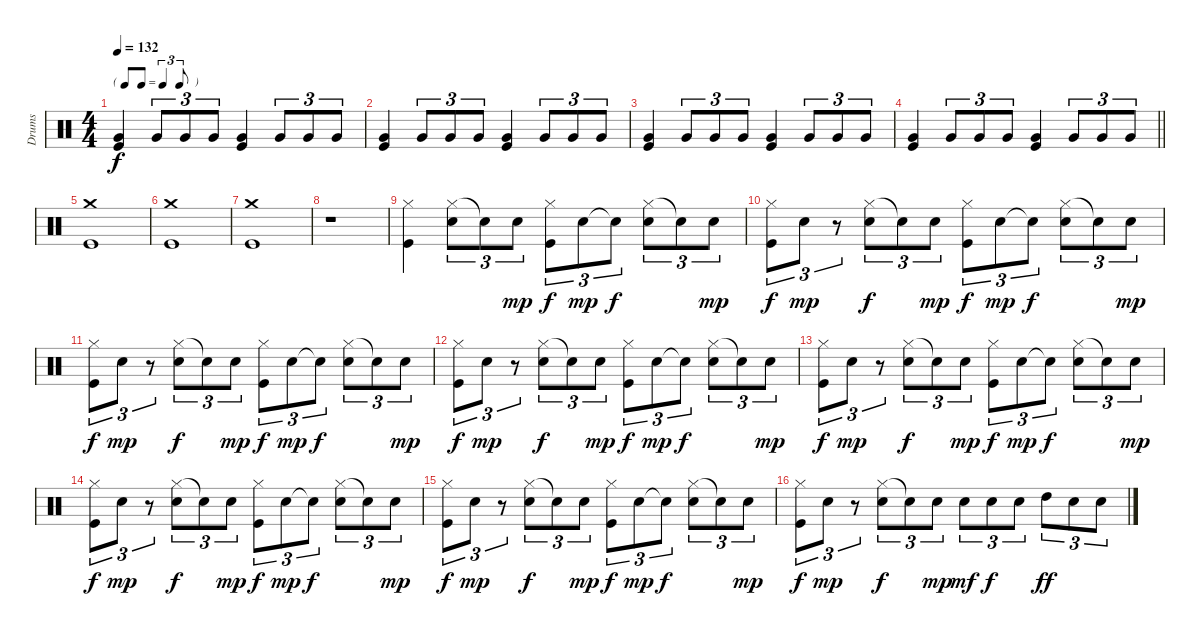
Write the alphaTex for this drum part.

\track ("Drums" "Drums") {instrument percussion}
\staff {score}
\articulation defaults
\ts (4 4)
\tf triplet8th
\tempo 132
\clef neutral
\ks c
("Very Low Tom (hit)" "Kick (hit)").4{dy f} "Very Low Tom (hit)".8{tu (3 2)} "Very Low Tom (hit)".8{tu (3 2)} "Very Low Tom (hit)".8{tu (3 2)} ("Very Low Tom (hit)" "Kick (hit)").4 "Very Low Tom (hit)".8{tu (3 2)} "Very Low Tom (hit)".8{tu (3 2)} "Very Low Tom (hit)".8{tu (3 2)} |
("Very Low Tom (hit)" "Kick (hit)").4 "Very Low Tom (hit)".8{tu (3 2)} "Very Low Tom (hit)".8{tu (3 2)} "Very Low Tom (hit)".8{tu (3 2)} ("Very Low Tom (hit)" "Kick (hit)").4 "Very Low Tom (hit)".8{tu (3 2)} "Very Low Tom (hit)".8{tu (3 2)} "Very Low Tom (hit)".8{tu (3 2)} |
("Very Low Tom (hit)" "Kick (hit)").4 "Very Low Tom (hit)".8{tu (3 2)} "Very Low Tom (hit)".8{tu (3 2)} "Very Low Tom (hit)".8{tu (3 2)} ("Very Low Tom (hit)" "Kick (hit)").4 "Very Low Tom (hit)".8{tu (3 2)} "Very Low Tom (hit)".8{tu (3 2)} "Very Low Tom (hit)".8{tu (3 2)} |
\barLineRight lightlight
("Very Low Tom (hit)" "Kick (hit)").4 "Very Low Tom (hit)".8{tu (3 2)} "Very Low Tom (hit)".8{tu (3 2)} "Very Low Tom (hit)".8{tu (3 2)} ("Very Low Tom (hit)" "Kick (hit)").4 "Very Low Tom (hit)".8{tu (3 2)} "Very Low Tom (hit)".8{tu (3 2)} "Very Low Tom (hit)".8{tu (3 2)} |
("Crash medium (hit)" "Kick (hit)").1 |
("Crash medium (hit)" "Kick (hit)").1 |
("Crash medium (hit)" "Kick (hit)").1 |
r.1 |
("Hi-Hat (closed)" "Kick (hit)").4 ("Hi-Hat (closed)" "Electric Snare (hit)").8{tu (3 2)} "Snare (hit)"{t}.8{tu (3 2)} "Electric Snare (hit)".8{tu (3 2) dy mp} ("Hi-Hat (closed)" "Kick (hit)").8{tu (3 2) dy f} "Electric Snare (hit)".8{tu (3 2) dy mp} "Snare (hit)"{t}.8{tu (3 2) dy f} ("Hi-Hat (closed)" "Electric Snare (hit)").8{tu (3 2)} "Snare (hit)"{t}.8{tu (3 2)} "Electric Snare (hit)".8{tu (3 2) dy mp} |
("Hi-Hat (closed)" "Kick (hit)").8{tu (3 2) dy f} "Electric Snare (hit)".8{tu (3 2) dy mp} r.8{tu (3 2)} ("Hi-Hat (closed)" "Electric Snare (hit)").8{tu (3 2) dy f} "Snare (hit)"{t}.8{tu (3 2)} "Electric Snare (hit)".8{tu (3 2) dy mp} ("Hi-Hat (closed)" "Kick (hit)").8{tu (3 2) dy f} "Electric Snare (hit)".8{tu (3 2) dy mp} "Snare (hit)"{t}.8{tu (3 2) dy f} ("Hi-Hat (closed)" "Electric Snare (hit)").8{tu (3 2)} "Snare (hit)"{t}.8{tu (3 2)} "Electric Snare (hit)".8{tu (3 2) dy mp} |
("Hi-Hat (closed)" "Kick (hit)").8{tu (3 2) dy f} "Electric Snare (hit)".8{tu (3 2) dy mp} r.8{tu (3 2)} ("Hi-Hat (closed)" "Electric Snare (hit)").8{tu (3 2) dy f} "Snare (hit)"{t}.8{tu (3 2)} "Electric Snare (hit)".8{tu (3 2) dy mp} ("Hi-Hat (closed)" "Kick (hit)").8{tu (3 2) dy f} "Electric Snare (hit)".8{tu (3 2) dy mp} "Snare (hit)"{t}.8{tu (3 2) dy f} ("Hi-Hat (closed)" "Electric Snare (hit)").8{tu (3 2)} "Snare (hit)"{t}.8{tu (3 2)} "Electric Snare (hit)".8{tu (3 2) dy mp} |
("Hi-Hat (closed)" "Kick (hit)").8{tu (3 2) dy f} "Electric Snare (hit)".8{tu (3 2) dy mp} r.8{tu (3 2)} ("Hi-Hat (closed)" "Electric Snare (hit)").8{tu (3 2) dy f} "Snare (hit)"{t}.8{tu (3 2)} "Electric Snare (hit)".8{tu (3 2) dy mp} ("Hi-Hat (closed)" "Kick (hit)").8{tu (3 2) dy f} "Electric Snare (hit)".8{tu (3 2) dy mp} "Snare (hit)"{t}.8{tu (3 2) dy f} ("Hi-Hat (closed)" "Electric Snare (hit)").8{tu (3 2)} "Snare (hit)"{t}.8{tu (3 2)} "Electric Snare (hit)".8{tu (3 2) dy mp} |
("Hi-Hat (closed)" "Kick (hit)").8{tu (3 2) dy f} "Electric Snare (hit)".8{tu (3 2) dy mp} r.8{tu (3 2)} ("Hi-Hat (closed)" "Electric Snare (hit)").8{tu (3 2) dy f} "Snare (hit)"{t}.8{tu (3 2)} "Electric Snare (hit)".8{tu (3 2) dy mp} ("Hi-Hat (closed)" "Kick (hit)").8{tu (3 2) dy f} "Electric Snare (hit)".8{tu (3 2) dy mp} "Snare (hit)"{t}.8{tu (3 2) dy f} ("Hi-Hat (closed)" "Electric Snare (hit)").8{tu (3 2)} "Snare (hit)"{t}.8{tu (3 2)} "Electric Snare (hit)".8{tu (3 2) dy mp} |
("Hi-Hat (closed)" "Kick (hit)").8{tu (3 2) dy f} "Electric Snare (hit)".8{tu (3 2) dy mp} r.8{tu (3 2)} ("Hi-Hat (closed)" "Electric Snare (hit)").8{tu (3 2) dy f} "Snare (hit)"{t}.8{tu (3 2)} "Electric Snare (hit)".8{tu (3 2) dy mp} ("Hi-Hat (closed)" "Kick (hit)").8{tu (3 2) dy f} "Electric Snare (hit)".8{tu (3 2) dy mp} "Snare (hit)"{t}.8{tu (3 2) dy f} ("Hi-Hat (closed)" "Electric Snare (hit)").8{tu (3 2)} "Snare (hit)"{t}.8{tu (3 2)} "Electric Snare (hit)".8{tu (3 2) dy mp} |
("Hi-Hat (closed)" "Kick (hit)").8{tu (3 2) dy f} "Electric Snare (hit)".8{tu (3 2) dy mp} r.8{tu (3 2)} ("Hi-Hat (closed)" "Electric Snare (hit)").8{tu (3 2) dy f} "Snare (hit)"{t}.8{tu (3 2)} "Electric Snare (hit)".8{tu (3 2) dy mp} ("Hi-Hat (closed)" "Kick (hit)").8{tu (3 2) dy f} "Electric Snare (hit)".8{tu (3 2) dy mp} "Snare (hit)"{t}.8{tu (3 2) dy f} ("Hi-Hat (closed)" "Electric Snare (hit)").8{tu (3 2)} "Snare (hit)"{t}.8{tu (3 2)} "Electric Snare (hit)".8{tu (3 2) dy mp} |
("Hi-Hat (closed)" "Kick (hit)").8{tu (3 2) dy f} "Electric Snare (hit)".8{tu (3 2) dy mp} r.8{tu (3 2)} ("Hi-Hat (closed)" "Electric Snare (hit)").8{tu (3 2) dy f} "Snare (hit)"{t}.8{tu (3 2)} "Electric Snare (hit)".8{tu (3 2) dy mp} "Electric Snare (hit)".8{tu (3 2) dy mf} "Electric Snare (hit)".8{tu (3 2) dy f} "Electric Snare (hit)".8{tu (3 2)} "High Tom (hit)".8{tu (3 2) dy ff} "Electric Snare (hit)".8{tu (3 2)} "Electric Snare (hit)".8{tu (3 2)}
